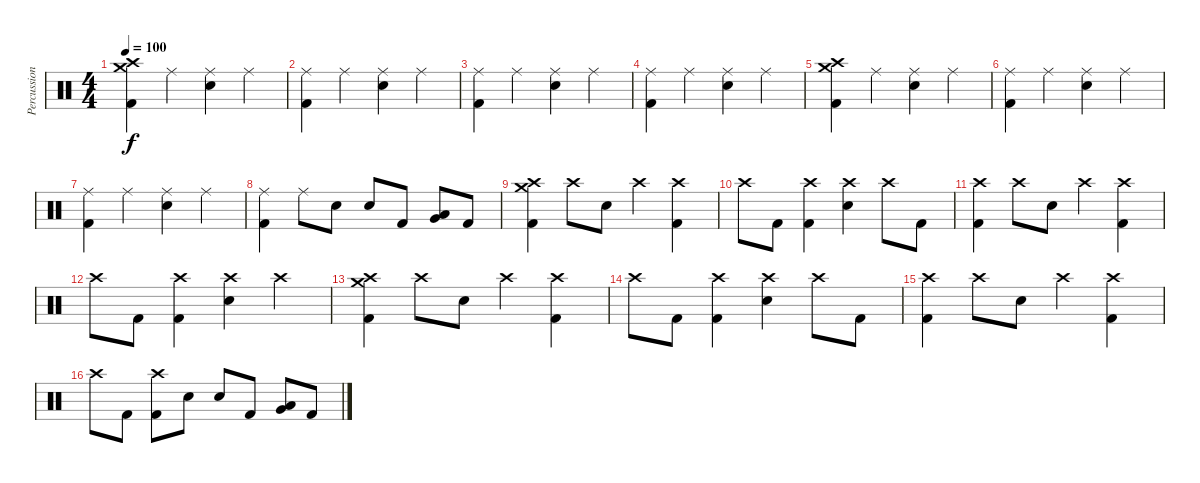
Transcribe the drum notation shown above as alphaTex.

\track ("Percussion" "Percussion") {instrument percussion}
\staff {score}
\articulation defaults
\ts (4 4)
\tempo 100
\clef neutral
\ks c
("Crash medium (hit)" "Crash high (hit)" "Kick (hit) 2").4{dy f} "Ride (middle)".4 ("Ride (middle)" "Electric Snare (hit)").4 "Ride (middle)".4 |
("Ride (middle)" "Kick (hit) 2").4 "Ride (middle)".4 ("Ride (middle)" "Electric Snare (hit)").4 "Ride (middle)".4 |
("Ride (middle)" "Kick (hit) 2").4 "Ride (middle)".4 ("Ride (middle)" "Electric Snare (hit)").4 "Ride (middle)".4 |
("Ride (middle)" "Kick (hit) 2").4 "Ride (middle)".4 ("Ride (middle)" "Electric Snare (hit)").4 "Ride (middle)".4 |
("Crash medium (hit)" "Crash high (hit)" "Kick (hit) 2").4 "Ride (middle)".4 ("Ride (middle)" "Electric Snare (hit)").4 "Ride (middle)".4 |
("Ride (middle)" "Kick (hit) 2").4 "Ride (middle)".4 ("Ride (middle)" "Electric Snare (hit)").4 "Ride (middle)".4 |
("Ride (middle)" "Kick (hit) 2").4 "Ride (middle)".4 ("Ride (middle)" "Electric Snare (hit)").4 "Ride (middle)".4 |
("Ride (middle)" "Kick (hit) 2").4 "Ride (middle)".8 "Electric Snare (hit)".8 "Electric Snare (hit)".8 "Kick (hit) 2".8 ("Very Low Tom (hit)" "Low Floor Tom (hit)").8 "Kick (hit) 2".8 |
("Crash medium (hit)" "Crash high (hit)" "Kick (hit) 2").4 "Crash high (hit)".8 "Electric Snare (hit)".8 "Crash high (hit)".4 ("Crash high (hit)" "Kick (hit) 2").4 |
"Crash high (hit)".8 "Kick (hit) 2".8 ("Crash high (hit)" "Kick (hit) 2").4 ("Crash high (hit)" "Electric Snare (hit)").4 "Crash high (hit)".8 "Kick (hit) 2".8 |
("Crash high (hit)" "Kick (hit) 2").4 "Crash high (hit)".8 "Electric Snare (hit)".8 "Crash high (hit)".4 ("Crash high (hit)" "Kick (hit) 2").4 |
"Crash high (hit)".8 "Kick (hit) 2".8 ("Crash high (hit)" "Kick (hit) 2").4 ("Crash high (hit)" "Electric Snare (hit)").4 "Crash high (hit)".4 |
("Crash medium (hit)" "Crash high (hit)" "Kick (hit) 2").4 "Crash high (hit)".8 "Electric Snare (hit)".8 "Crash high (hit)".4 ("Crash high (hit)" "Kick (hit) 2").4 |
"Crash high (hit)".8 "Kick (hit) 2".8 ("Crash high (hit)" "Kick (hit) 2").4 ("Crash high (hit)" "Electric Snare (hit)").4 "Crash high (hit)".8 "Kick (hit) 2".8 |
("Crash high (hit)" "Kick (hit) 2").4 "Crash high (hit)".8 "Electric Snare (hit)".8 "Crash high (hit)".4 ("Crash high (hit)" "Kick (hit) 2").4 |
"Crash high (hit)".8 "Kick (hit) 2".8 ("Crash high (hit)" "Kick (hit) 2").8 "Electric Snare (hit)".8 "Electric Snare (hit)".8 "Kick (hit) 2".8 ("Very Low Tom (hit)" "Low Floor Tom (hit)").8 "Kick (hit) 2".8
